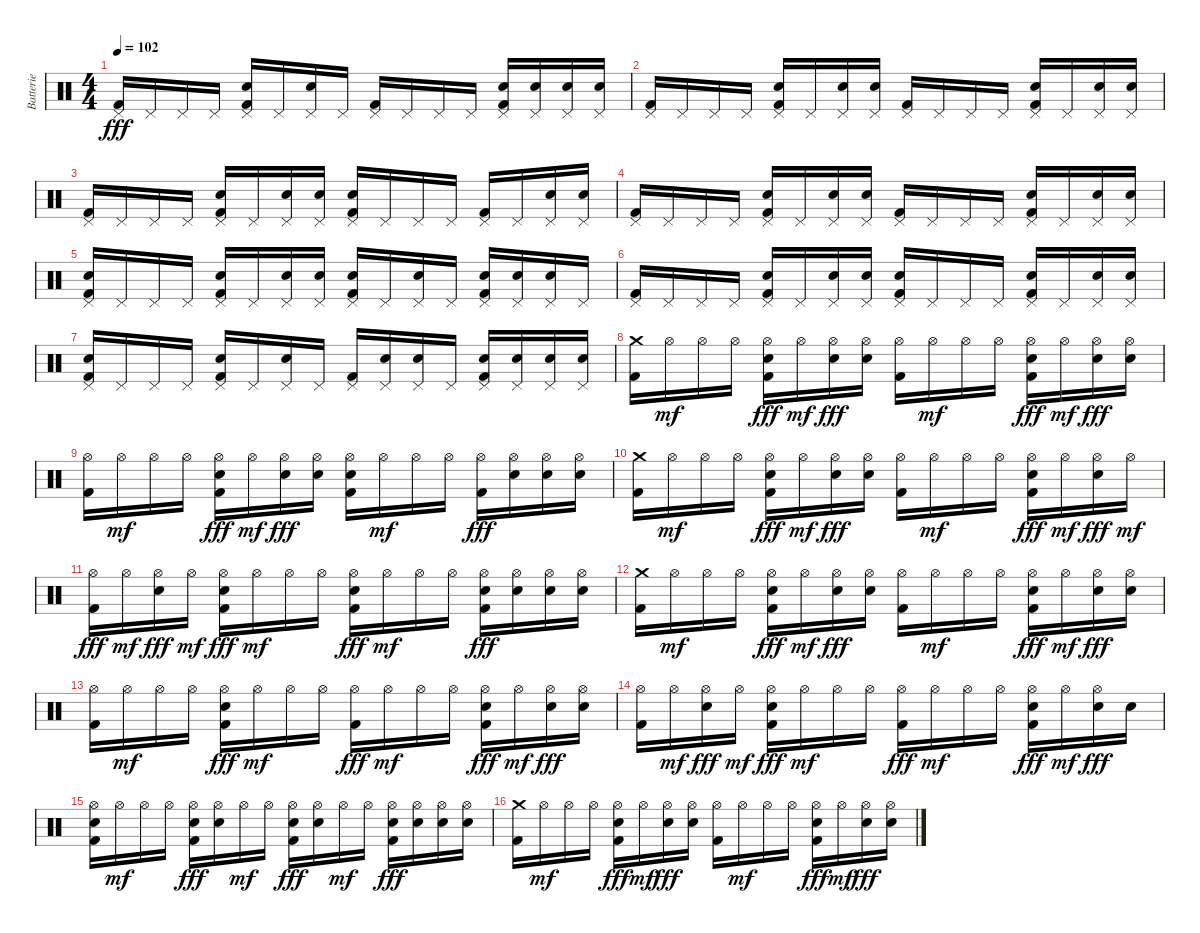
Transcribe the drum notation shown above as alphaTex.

\track ("Batterie" "Batterie") {instrument percussion}
\staff {score}
\articulation defaults
\ts (4 4)
\tempo 102
\clef neutral
\ks c
("Pedal Hi-Hat (hit)" "Kick (hit) 2").16{dy fff} "Pedal Hi-Hat (hit)".16 "Pedal Hi-Hat (hit)".16 "Pedal Hi-Hat (hit)".16 ("Pedal Hi-Hat (hit)" "Electric Snare (hit)" "Kick (hit) 2").16 "Pedal Hi-Hat (hit)".16 ("Pedal Hi-Hat (hit)" "Electric Snare (hit)").16 "Pedal Hi-Hat (hit)".16 ("Pedal Hi-Hat (hit)" "Kick (hit) 2").16 "Pedal Hi-Hat (hit)".16 "Pedal Hi-Hat (hit)".16 "Pedal Hi-Hat (hit)".16 ("Pedal Hi-Hat (hit)" "Electric Snare (hit)" "Kick (hit) 2").16 ("Pedal Hi-Hat (hit)" "Electric Snare (hit)").16 ("Pedal Hi-Hat (hit)" "Electric Snare (hit)").16 ("Pedal Hi-Hat (hit)" "Electric Snare (hit)").16 |
("Pedal Hi-Hat (hit)" "Kick (hit) 2").16 "Pedal Hi-Hat (hit)".16 "Pedal Hi-Hat (hit)".16 "Pedal Hi-Hat (hit)".16 ("Pedal Hi-Hat (hit)" "Electric Snare (hit)" "Kick (hit) 2").16 "Pedal Hi-Hat (hit)".16 ("Pedal Hi-Hat (hit)" "Electric Snare (hit)").16 ("Pedal Hi-Hat (hit)" "Electric Snare (hit)").16 ("Pedal Hi-Hat (hit)" "Kick (hit) 2").16 "Pedal Hi-Hat (hit)".16 "Pedal Hi-Hat (hit)".16 "Pedal Hi-Hat (hit)".16 ("Pedal Hi-Hat (hit)" "Electric Snare (hit)" "Kick (hit) 2").16 "Pedal Hi-Hat (hit)".16 ("Pedal Hi-Hat (hit)" "Electric Snare (hit)").16 ("Pedal Hi-Hat (hit)" "Electric Snare (hit)").16 |
("Pedal Hi-Hat (hit)" "Kick (hit) 2").16 "Pedal Hi-Hat (hit)".16 "Pedal Hi-Hat (hit)".16 "Pedal Hi-Hat (hit)".16 ("Pedal Hi-Hat (hit)" "Electric Snare (hit)" "Kick (hit) 2").16 "Pedal Hi-Hat (hit)".16 ("Pedal Hi-Hat (hit)" "Electric Snare (hit)").16 ("Pedal Hi-Hat (hit)" "Electric Snare (hit)").16 ("Pedal Hi-Hat (hit)" "Electric Snare (hit)" "Kick (hit) 2").16 "Pedal Hi-Hat (hit)".16 "Pedal Hi-Hat (hit)".16 "Pedal Hi-Hat (hit)".16 ("Pedal Hi-Hat (hit)" "Kick (hit) 2").16 "Pedal Hi-Hat (hit)".16 ("Pedal Hi-Hat (hit)" "Electric Snare (hit)").16 ("Pedal Hi-Hat (hit)" "Electric Snare (hit)").16 |
("Pedal Hi-Hat (hit)" "Kick (hit) 2").16 "Pedal Hi-Hat (hit)".16 "Pedal Hi-Hat (hit)".16 "Pedal Hi-Hat (hit)".16 ("Pedal Hi-Hat (hit)" "Electric Snare (hit)" "Kick (hit) 2").16 "Pedal Hi-Hat (hit)".16 ("Pedal Hi-Hat (hit)" "Electric Snare (hit)").16 ("Pedal Hi-Hat (hit)" "Electric Snare (hit)").16 ("Pedal Hi-Hat (hit)" "Kick (hit) 2").16 "Pedal Hi-Hat (hit)".16 "Pedal Hi-Hat (hit)".16 "Pedal Hi-Hat (hit)".16 ("Pedal Hi-Hat (hit)" "Electric Snare (hit)" "Kick (hit) 2").16 "Pedal Hi-Hat (hit)".16 ("Pedal Hi-Hat (hit)" "Electric Snare (hit)").16 ("Pedal Hi-Hat (hit)" "Electric Snare (hit)").16 |
("Pedal Hi-Hat (hit)" "Electric Snare (hit)" "Kick (hit) 2").16 "Pedal Hi-Hat (hit)".16 "Pedal Hi-Hat (hit)".16 "Pedal Hi-Hat (hit)".16 ("Pedal Hi-Hat (hit)" "Electric Snare (hit)" "Kick (hit) 2").16 "Pedal Hi-Hat (hit)".16 ("Pedal Hi-Hat (hit)" "Electric Snare (hit)").16 ("Pedal Hi-Hat (hit)" "Electric Snare (hit)").16 ("Pedal Hi-Hat (hit)" "Electric Snare (hit)" "Kick (hit) 2").16 "Pedal Hi-Hat (hit)".16 ("Pedal Hi-Hat (hit)" "Electric Snare (hit)").16 "Pedal Hi-Hat (hit)".16 ("Pedal Hi-Hat (hit)" "Electric Snare (hit)" "Kick (hit) 2").16 ("Pedal Hi-Hat (hit)" "Electric Snare (hit)").16 ("Pedal Hi-Hat (hit)" "Electric Snare (hit)").16 "Pedal Hi-Hat (hit)".16 |
("Pedal Hi-Hat (hit)" "Kick (hit) 2").16 "Pedal Hi-Hat (hit)".16 "Pedal Hi-Hat (hit)".16 "Pedal Hi-Hat (hit)".16 ("Pedal Hi-Hat (hit)" "Electric Snare (hit)" "Kick (hit) 2").16 "Pedal Hi-Hat (hit)".16 ("Pedal Hi-Hat (hit)" "Electric Snare (hit)").16 ("Pedal Hi-Hat (hit)" "Electric Snare (hit)").16 ("Pedal Hi-Hat (hit)" "Electric Snare (hit)" "Kick (hit) 2").16 "Pedal Hi-Hat (hit)".16 "Pedal Hi-Hat (hit)".16 "Pedal Hi-Hat (hit)".16 ("Pedal Hi-Hat (hit)" "Electric Snare (hit)" "Kick (hit) 2").16 "Pedal Hi-Hat (hit)".16 ("Pedal Hi-Hat (hit)" "Electric Snare (hit)").16 ("Pedal Hi-Hat (hit)" "Electric Snare (hit)").16 |
("Pedal Hi-Hat (hit)" "Electric Snare (hit)" "Kick (hit) 2").16 "Pedal Hi-Hat (hit)".16 "Pedal Hi-Hat (hit)".16 "Pedal Hi-Hat (hit)".16 ("Pedal Hi-Hat (hit)" "Electric Snare (hit)" "Kick (hit) 2").16 "Pedal Hi-Hat (hit)".16 ("Pedal Hi-Hat (hit)" "Electric Snare (hit)").16 "Pedal Hi-Hat (hit)".16 ("Pedal Hi-Hat (hit)" "Kick (hit) 2").16 ("Pedal Hi-Hat (hit)" "Electric Snare (hit)").16 ("Pedal Hi-Hat (hit)" "Electric Snare (hit)").16 "Pedal Hi-Hat (hit)".16 ("Pedal Hi-Hat (hit)" "Electric Snare (hit)" "Kick (hit) 2").16 ("Pedal Hi-Hat (hit)" "Electric Snare (hit)").16 ("Pedal Hi-Hat (hit)" "Electric Snare (hit)").16 ("Pedal Hi-Hat (hit)" "Electric Snare (hit)").16 |
("Crash medium (hit)" "Kick (hit) 2").16 "Hi-Hat (open)".16{dy mf} "Hi-Hat (open)".16 "Hi-Hat (open)".16 ("Hi-Hat (open)" "Electric Snare (hit)" "Kick (hit) 2").16{dy fff} "Hi-Hat (open)".16{dy mf} ("Hi-Hat (open)" "Electric Snare (hit)").16{dy fff} ("Hi-Hat (open)" "Electric Snare (hit)").16 ("Hi-Hat (open)" "Kick (hit) 2").16 "Hi-Hat (open)".16{dy mf} "Hi-Hat (open)".16 "Hi-Hat (open)".16 ("Hi-Hat (open)" "Electric Snare (hit)" "Kick (hit) 2").16{dy fff} "Hi-Hat (open)".16{dy mf} ("Hi-Hat (open)" "Electric Snare (hit)").16{dy fff} ("Hi-Hat (open)" "Electric Snare (hit)").16 |
("Hi-Hat (open)" "Kick (hit) 2").16 "Hi-Hat (open)".16{dy mf} "Hi-Hat (open)".16 "Hi-Hat (open)".16 ("Hi-Hat (open)" "Electric Snare (hit)" "Kick (hit) 2").16{dy fff} "Hi-Hat (open)".16{dy mf} ("Hi-Hat (open)" "Electric Snare (hit)").16{dy fff} ("Hi-Hat (open)" "Electric Snare (hit)").16 ("Hi-Hat (open)" "Electric Snare (hit)" "Kick (hit) 2").16 "Hi-Hat (open)".16{dy mf} "Hi-Hat (open)".16 "Hi-Hat (open)".16 ("Hi-Hat (open)" "Kick (hit) 2").16{dy fff} ("Hi-Hat (open)" "Electric Snare (hit)").16 ("Hi-Hat (open)" "Electric Snare (hit)").16 ("Hi-Hat (open)" "Electric Snare (hit)").16 |
("Crash medium (hit)" "Kick (hit) 2").16 "Hi-Hat (open)".16{dy mf} "Hi-Hat (open)".16 "Hi-Hat (open)".16 ("Hi-Hat (open)" "Electric Snare (hit)" "Kick (hit) 2").16{dy fff} "Hi-Hat (open)".16{dy mf} ("Hi-Hat (open)" "Electric Snare (hit)").16{dy fff} ("Hi-Hat (open)" "Electric Snare (hit)").16 ("Hi-Hat (open)" "Kick (hit) 2").16 "Hi-Hat (open)".16{dy mf} "Hi-Hat (open)".16 "Hi-Hat (open)".16 ("Hi-Hat (open)" "Electric Snare (hit)" "Kick (hit) 2").16{dy fff} "Hi-Hat (open)".16{dy mf} ("Hi-Hat (open)" "Electric Snare (hit)").16{dy fff} "Hi-Hat (open)".16{dy mf} |
("Hi-Hat (open)" "Kick (hit) 2").16{dy fff} "Hi-Hat (open)".16{dy mf} ("Hi-Hat (open)" "Electric Snare (hit)").16{dy fff} "Hi-Hat (open)".16{dy mf} ("Hi-Hat (open)" "Electric Snare (hit)" "Kick (hit) 2").16{dy fff} "Hi-Hat (open)".16{dy mf} "Hi-Hat (open)".16 "Hi-Hat (open)".16 ("Hi-Hat (open)" "Electric Snare (hit)" "Kick (hit) 2").16{dy fff} "Hi-Hat (open)".16{dy mf} "Hi-Hat (open)".16 "Hi-Hat (open)".16 ("Hi-Hat (open)" "Electric Snare (hit)" "Kick (hit) 2").16{dy fff} ("Hi-Hat (open)" "Electric Snare (hit)").16 ("Hi-Hat (open)" "Electric Snare (hit)").16 ("Hi-Hat (open)" "Electric Snare (hit)").16 |
("Crash medium (hit)" "Kick (hit) 2").16 "Hi-Hat (open)".16{dy mf} "Hi-Hat (open)".16 "Hi-Hat (open)".16 ("Hi-Hat (open)" "Electric Snare (hit)" "Kick (hit) 2").16{dy fff} "Hi-Hat (open)".16{dy mf} ("Hi-Hat (open)" "Electric Snare (hit)").16{dy fff} ("Hi-Hat (open)" "Electric Snare (hit)").16 ("Hi-Hat (open)" "Kick (hit) 2").16 "Hi-Hat (open)".16{dy mf} "Hi-Hat (open)".16 "Hi-Hat (open)".16 ("Hi-Hat (open)" "Electric Snare (hit)" "Kick (hit) 2").16{dy fff} "Hi-Hat (open)".16{dy mf} ("Hi-Hat (open)" "Electric Snare (hit)").16{dy fff} ("Hi-Hat (open)" "Electric Snare (hit)").16 |
("Hi-Hat (open)" "Kick (hit) 2").16 "Hi-Hat (open)".16{dy mf} "Hi-Hat (open)".16 "Hi-Hat (open)".16 ("Hi-Hat (open)" "Electric Snare (hit)" "Kick (hit) 2").16{dy fff} "Hi-Hat (open)".16{dy mf} "Hi-Hat (open)".16 "Hi-Hat (open)".16 ("Hi-Hat (open)" "Kick (hit) 2").16{dy fff} "Hi-Hat (open)".16{dy mf} "Hi-Hat (open)".16 "Hi-Hat (open)".16 ("Hi-Hat (open)" "Electric Snare (hit)" "Kick (hit) 2").16{dy fff} "Hi-Hat (open)".16{dy mf} ("Hi-Hat (open)" "Electric Snare (hit)").16{dy fff} ("Hi-Hat (open)" "Electric Snare (hit)").16 |
("Hi-Hat (open)" "Kick (hit) 2").16 "Hi-Hat (open)".16{dy mf} ("Hi-Hat (open)" "Electric Snare (hit)").16{dy fff} "Hi-Hat (open)".16{dy mf} ("Hi-Hat (open)" "Electric Snare (hit)" "Kick (hit) 2").16{dy fff} "Hi-Hat (open)".16{dy mf} "Hi-Hat (open)".16 "Hi-Hat (open)".16 ("Hi-Hat (open)" "Kick (hit) 2").16{dy fff} "Hi-Hat (open)".16{dy mf} "Hi-Hat (open)".16 "Hi-Hat (open)".16 ("Hi-Hat (open)" "Electric Snare (hit)" "Kick (hit) 2").16{dy fff} "Hi-Hat (open)".16{dy mf} ("Hi-Hat (open)" "Electric Snare (hit)").16{dy fff} "Electric Snare (hit)".16 |
("Hi-Hat (open)" "Electric Snare (hit)" "Kick (hit) 2").16 "Hi-Hat (open)".16{dy mf} "Hi-Hat (open)".16 "Hi-Hat (open)".16 ("Hi-Hat (open)" "Electric Snare (hit)" "Kick (hit) 2").16{dy fff} ("Hi-Hat (open)" "Electric Snare (hit)").16 "Hi-Hat (open)".16{dy mf} "Hi-Hat (open)".16 ("Hi-Hat (open)" "Electric Snare (hit)" "Kick (hit) 2").16{dy fff} ("Hi-Hat (open)" "Electric Snare (hit)").16 "Hi-Hat (open)".16{dy mf} "Hi-Hat (open)".16 ("Hi-Hat (open)" "Electric Snare (hit)" "Kick (hit) 2").16{dy fff} ("Hi-Hat (open)" "Electric Snare (hit)").16 ("Hi-Hat (open)" "Electric Snare (hit)").16 ("Hi-Hat (open)" "Electric Snare (hit)").16 |
("Crash medium (hit)" "Kick (hit) 2").16 "Hi-Hat (open)".16{dy mf} "Hi-Hat (open)".16 "Hi-Hat (open)".16 ("Hi-Hat (open)" "Electric Snare (hit)" "Kick (hit) 2").16{dy fff} "Hi-Hat (open)".16{dy mf} ("Hi-Hat (open)" "Electric Snare (hit)").16{dy fff} ("Hi-Hat (open)" "Electric Snare (hit)").16 ("Hi-Hat (open)" "Kick (hit) 2").16 "Hi-Hat (open)".16{dy mf} "Hi-Hat (open)".16 "Hi-Hat (open)".16 ("Hi-Hat (open)" "Electric Snare (hit)" "Kick (hit) 2").16{dy fff} "Hi-Hat (open)".16{dy mf} ("Hi-Hat (open)" "Electric Snare (hit)").16{dy fff} ("Hi-Hat (open)" "Electric Snare (hit)").16
